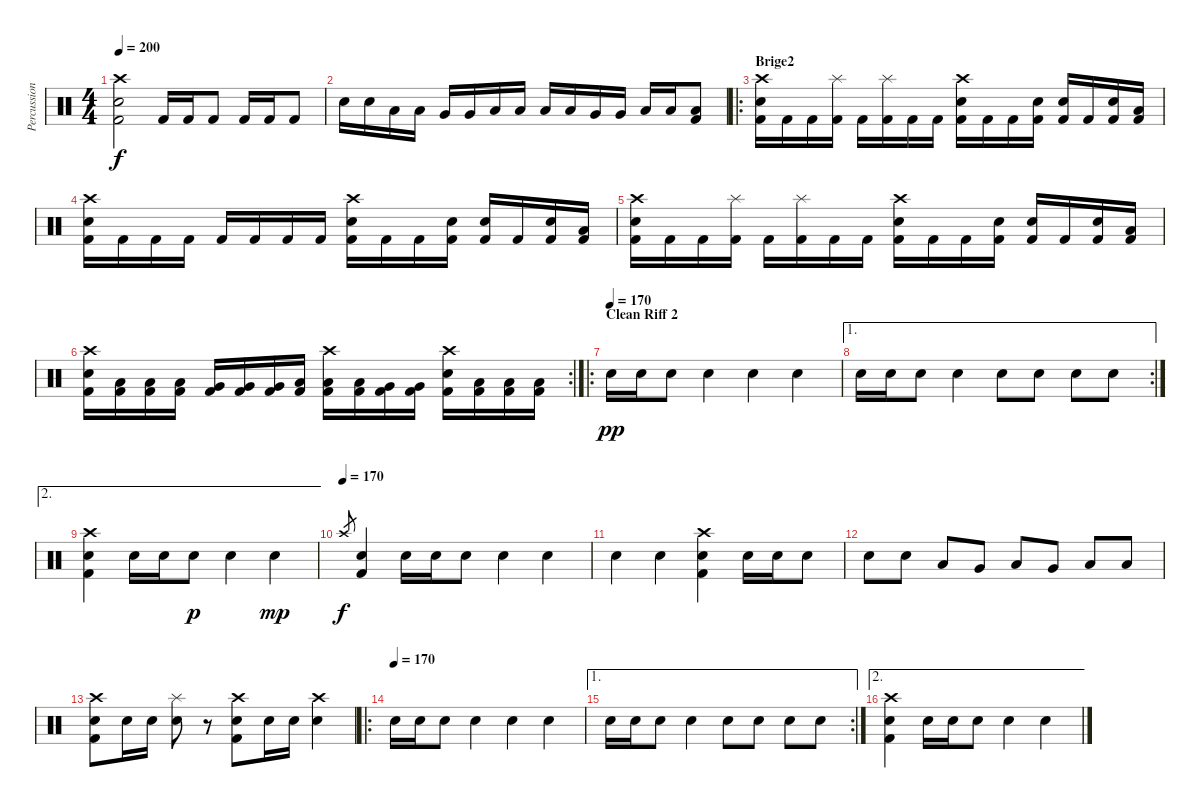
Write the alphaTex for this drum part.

\track ("Percussion" "Percussion") {instrument percussion}
\staff {score}
\articulation defaults
\ts (4 4)
\tempo 200
\clef neutral
\ks c
("Crash high (hit)" "Snare (hit) 2" "Kick (hit) 2").2{dy f} "Kick (hit) 2".16 "Kick (hit) 2".16 "Kick (hit) 2".8 "Kick (hit) 2".16 "Kick (hit) 2".16 "Kick (hit) 2".8 |
"Electric Snare (hit)".16 "Electric Snare (hit)".16 "Low Tom (hit)".16 "Low Tom (hit)".16 "Very Low Tom (hit)".16 "Very Low Tom (hit)".16 "Low Floor Tom (hit)".16 "Low Floor Tom (hit)".16 "Low Tom (hit)".16 "Low Tom (hit)".16 "Very Low Tom (hit)".16 "Very Low Tom (hit)".16 "Low Floor Tom (hit)".16 "Low Floor Tom (hit)".16 ("Low Floor Tom (hit)" "Kick (hit) 2").8 |
\ro
\section ("" "Brige2")
("Snare (hit) 2" "Crash high (hit)" "Kick (hit) 2").16 "Kick (hit) 2".16 "Kick (hit) 2".16 ("Splash (hit)" "Kick (hit) 2").16 "Kick (hit) 2".16 ("Splash (hit)" "Kick (hit) 2").16 "Kick (hit) 2".16 "Kick (hit) 2".16 ("Crash high (hit)" "Snare (hit) 2" "Kick (hit) 2").16 "Kick (hit) 2".16 "Kick (hit) 2".16 ("Electric Snare (hit)" "Kick (hit) 2").16 ("Snare (hit) 2" "Kick (hit) 2").16 "Kick (hit) 2".16 ("Snare (hit) 2" "Kick (hit) 2").16 ("Low Tom (hit)" "Kick (hit) 2").16 |
("Snare (hit) 2" "Crash high (hit)" "Kick (hit) 2").16 "Kick (hit) 2".16 "Kick (hit) 2".16 "Kick (hit) 2".16 "Kick (hit) 2".16 "Kick (hit) 2".16 "Kick (hit) 2".16 "Kick (hit) 2".16 ("Crash high (hit)" "Snare (hit) 2" "Kick (hit) 2").16 "Kick (hit) 2".16 "Kick (hit) 2".16 ("Electric Snare (hit)" "Kick (hit) 2").16 ("Snare (hit) 2" "Kick (hit) 2").16 "Kick (hit) 2".16 ("Snare (hit) 2" "Kick (hit) 2").16 ("Low Tom (hit)" "Kick (hit) 2").16 |
("Snare (hit) 2" "Crash high (hit)" "Kick (hit) 2").16 "Kick (hit) 2".16 "Kick (hit) 2".16 ("Splash (hit)" "Kick (hit) 2").16 "Kick (hit) 2".16 ("Splash (hit)" "Kick (hit) 2").16 "Kick (hit) 2".16 "Kick (hit) 2".16 ("Crash high (hit)" "Snare (hit) 2" "Kick (hit) 2").16 "Kick (hit) 2".16 "Kick (hit) 2".16 ("Electric Snare (hit)" "Kick (hit) 2").16 ("Snare (hit) 2" "Kick (hit) 2").16 "Kick (hit) 2".16 ("Snare (hit) 2" "Kick (hit) 2").16 ("Low Tom (hit)" "Kick (hit) 2").16 |
\rc 2
("Snare (hit) 2" "Crash high (hit)" "Kick (hit) 2").16 ("Low Floor Tom (hit)" "Kick (hit) 2").16 ("Low Floor Tom (hit)" "Kick (hit) 2").16 ("Low Floor Tom (hit)" "Kick (hit) 2").16 ("Very Low Tom (hit)" "Kick (hit) 2").16 ("Very Low Tom (hit)" "Kick (hit) 2").16 ("Very Low Tom (hit)" "Kick (hit) 2").16 ("Low Tom (hit)" "Kick (hit) 2").16 ("Crash high (hit)" "Low Tom (hit)" "Kick (hit) 2").16 ("Low Tom (hit)" "Kick (hit) 2").16 ("Very Low Tom (hit)" "Kick (hit) 2").16 ("Very Low Tom (hit)" "Kick (hit) 2").16 ("Crash high (hit)" "Snare (hit) 2" "Kick (hit) 2").16 ("Low Floor Tom (hit)" "Kick (hit) 2").16 ("Low Floor Tom (hit)" "Kick (hit) 2").16 ("Low Floor Tom (hit)" "Kick (hit) 2").16 |
\ro
\section ("" "Clean Riff 2")
\tempo (170)
"Electric Snare (hit)".16{dy pp} "Electric Snare (hit)".16 "Electric Snare (hit)".8 "Electric Snare (hit)".4 "Electric Snare (hit)".4 "Electric Snare (hit)".4 |
\ae 1
\rc 2 "Electric Snare (hit)".16 "Electric Snare (hit)".16 "Electric Snare (hit)".8 "Electric Snare (hit)".4 "Electric Snare (hit)".8 "Electric Snare (hit)".8 "Electric Snare (hit)".8 "Electric Snare (hit)".8
|
\ae 2
("Crash high (hit)" "Snare (hit) 2" "Kick (hit) 2").4 "Electric Snare (hit)".16 "Electric Snare (hit)".16 "Electric Snare (hit)".8{dy p} "Electric Snare (hit)".4 "Electric Snare (hit)".4{dy mp} |
\tempo (170)
"Crash high (hit)".8{gr dy f} ("Snare (hit) 2" "Kick (hit) 2").4 "Electric Snare (hit)".16 "Electric Snare (hit)".16 "Electric Snare (hit)".8 "Electric Snare (hit)".4 "Electric Snare (hit)".4 |
"Electric Snare (hit)".4 "Snare (hit) 2".4 ("Crash high (hit)" "Snare (hit) 2" "Kick (hit) 2").4 "Electric Snare (hit)".16 "Electric Snare (hit)".16 "Electric Snare (hit)".8 |
"Electric Snare (hit)".8 "Electric Snare (hit)".8 "Low Floor Tom (hit)".8 "Very Low Tom (hit)".8 "Low Tom (hit)".8 "Very Low Tom (hit)".8 "Low Floor Tom (hit)".8 "Low Floor Tom (hit)".8 |
("Crash high (hit)" "Snare (hit) 2" "Kick (hit) 2").8 "Electric Snare (hit)".16 "Electric Snare (hit)".16 ("Splash (hit)" "Electric Snare (hit)").8 r.8 ("Crash high (hit)" "Snare (hit) 2" "Kick (hit) 2").8 "Electric Snare (hit)".16 "Electric Snare (hit)".16 ("Crash high (hit)" "Electric Snare (hit)").4 |
\ro
\tempo (170)
"Electric Snare (hit)".16 "Electric Snare (hit)".16 "Electric Snare (hit)".8 "Electric Snare (hit)".4 "Electric Snare (hit)".4 "Electric Snare (hit)".4 |
\ae 1
\rc 2 "Electric Snare (hit)".16 "Electric Snare (hit)".16 "Electric Snare (hit)".8 "Electric Snare (hit)".4 "Electric Snare (hit)".8 "Electric Snare (hit)".8 "Electric Snare (hit)".8 "Electric Snare (hit)".8
|
\ae 2
("Crash high (hit)" "Snare (hit) 2" "Kick (hit) 2").4 "Electric Snare (hit)".16 "Electric Snare (hit)".16 "Electric Snare (hit)".8 "Electric Snare (hit)".4 "Electric Snare (hit)".4
